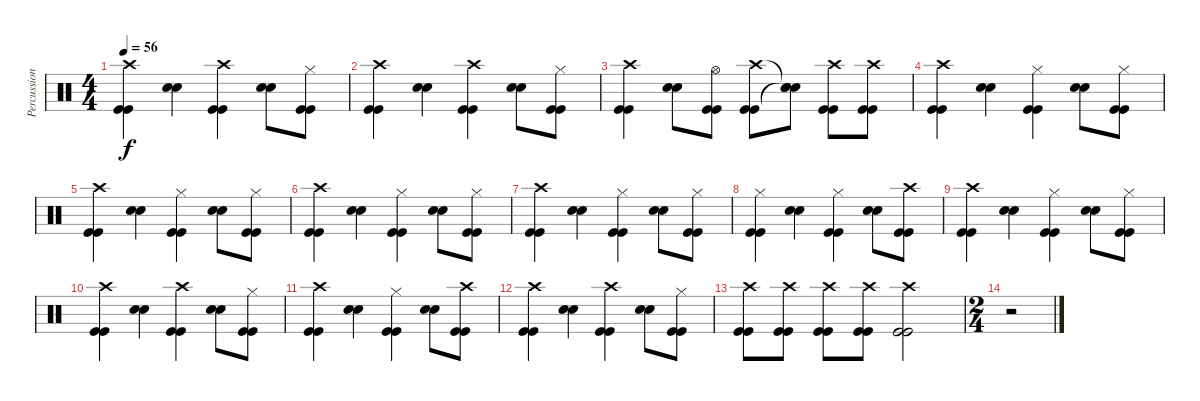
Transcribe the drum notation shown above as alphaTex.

\track ("Percussion" "Percussion") {instrument percussion}
\staff {score}
\articulation defaults
\ts (4 4)
\tempo 56
\clef neutral
\ks c
("Kick (hit)" "Kick (hit)" "Crash high (hit)").4{dy f} ("Snare (hit) 2" "Snare (hit) 2").4 ("Kick (hit)" "Kick (hit)" "Crash high (hit)").4 ("Snare (hit) 2" "Snare (hit) 2").8 ("Kick (hit)" "Kick (hit)" "Hi-Hat (closed)").8 |
("Kick (hit)" "Kick (hit)" "Crash high (hit)").4 ("Snare (hit) 2" "Snare (hit) 2").4 ("Kick (hit)" "Kick (hit)" "Crash high (hit)").4 ("Snare (hit) 2" "Snare (hit) 2").8 ("Kick (hit)" "Kick (hit)" "Hi-Hat (closed)").8 |
("Kick (hit)" "Kick (hit)" "Crash high (hit)").4 ("Snare (hit) 2" "Snare (hit) 2").8 ("Kick (hit)" "Hi-Hat (open)" "Kick (hit)").8 ("Kick (hit)" "Crash high (hit)" "Kick (hit)").8 ("Snare (hit)"{t} "Snare (hit)"{t} "Snare (hit)"{t}).8 ("Kick (hit)" "Crash high (hit)" "Kick (hit)").8 ("Kick (hit)" "Crash high (hit)" "Kick (hit)").8 |
("Kick (hit)" "Kick (hit)" "Crash high (hit)").4 ("Snare (hit) 2" "Snare (hit) 2").4 ("Kick (hit)" "Kick (hit)" "Hi-Hat (closed)").4 ("Snare (hit) 2" "Snare (hit) 2").8 ("Kick (hit)" "Kick (hit)" "Hi-Hat (closed)").8 |
("Kick (hit)" "Kick (hit)" "Crash high (hit)").4 ("Snare (hit) 2" "Snare (hit) 2").4 ("Kick (hit)" "Kick (hit)" "Hi-Hat (closed)").4 ("Snare (hit) 2" "Snare (hit) 2").8 ("Kick (hit)" "Kick (hit)" "Hi-Hat (closed)").8 |
("Kick (hit)" "Kick (hit)" "Crash high (hit)").4 ("Snare (hit) 2" "Snare (hit) 2").4 ("Kick (hit)" "Kick (hit)" "Hi-Hat (closed)").4 ("Snare (hit) 2" "Snare (hit) 2").8 ("Kick (hit)" "Kick (hit)" "Hi-Hat (closed)").8 |
("Kick (hit)" "Kick (hit)" "Crash high (hit)").4 ("Snare (hit) 2" "Snare (hit) 2").4 ("Kick (hit)" "Kick (hit)" "Hi-Hat (closed)").4 ("Snare (hit) 2" "Snare (hit) 2").8 ("Kick (hit)" "Kick (hit)" "Hi-Hat (closed)").8 |
("Kick (hit)" "Kick (hit)" "Hi-Hat (closed)").4 ("Snare (hit) 2" "Snare (hit) 2").4 ("Kick (hit)" "Kick (hit)" "Hi-Hat (closed)").4 ("Snare (hit) 2" "Snare (hit) 2").8 ("Kick (hit)" "Kick (hit)" "Crash high (hit)").8 |
("Kick (hit)" "Kick (hit)" "Crash high (hit)").4 ("Snare (hit) 2" "Snare (hit) 2").4 ("Kick (hit)" "Kick (hit)" "Hi-Hat (closed)").4 ("Snare (hit) 2" "Snare (hit) 2").8 ("Kick (hit)" "Kick (hit)" "Hi-Hat (closed)").8 |
("Kick (hit)" "Kick (hit)" "Crash high (hit)").4 ("Snare (hit) 2" "Snare (hit) 2").4 ("Kick (hit)" "Kick (hit)" "Crash high (hit)").4 ("Snare (hit) 2" "Snare (hit) 2").8 ("Kick (hit)" "Kick (hit)" "Hi-Hat (closed)").8 |
("Kick (hit)" "Kick (hit)" "Crash high (hit)").4 ("Snare (hit) 2" "Snare (hit) 2").4 ("Kick (hit)" "Kick (hit)" "Hi-Hat (closed)").4 ("Snare (hit) 2" "Snare (hit) 2").8 ("Kick (hit)" "Kick (hit)" "Crash high (hit)").8 |
("Kick (hit)" "Kick (hit)" "Crash high (hit)").4 ("Snare (hit) 2" "Snare (hit) 2").4 ("Kick (hit)" "Kick (hit)" "Crash high (hit)").4 ("Snare (hit) 2" "Snare (hit) 2").8 ("Kick (hit)" "Kick (hit)" "Hi-Hat (closed)").8 |
("Kick (hit)" "Kick (hit)" "Crash high (hit)").8 ("Kick (hit)" "Kick (hit)" "Crash high (hit)").8 ("Kick (hit)" "Kick (hit)" "Crash high (hit)").8 ("Kick (hit)" "Kick (hit)" "Crash high (hit)").8 ("Kick (hit)" "Kick (hit)" "Crash high (hit)").2 |
\ts (2 4)
r.2
